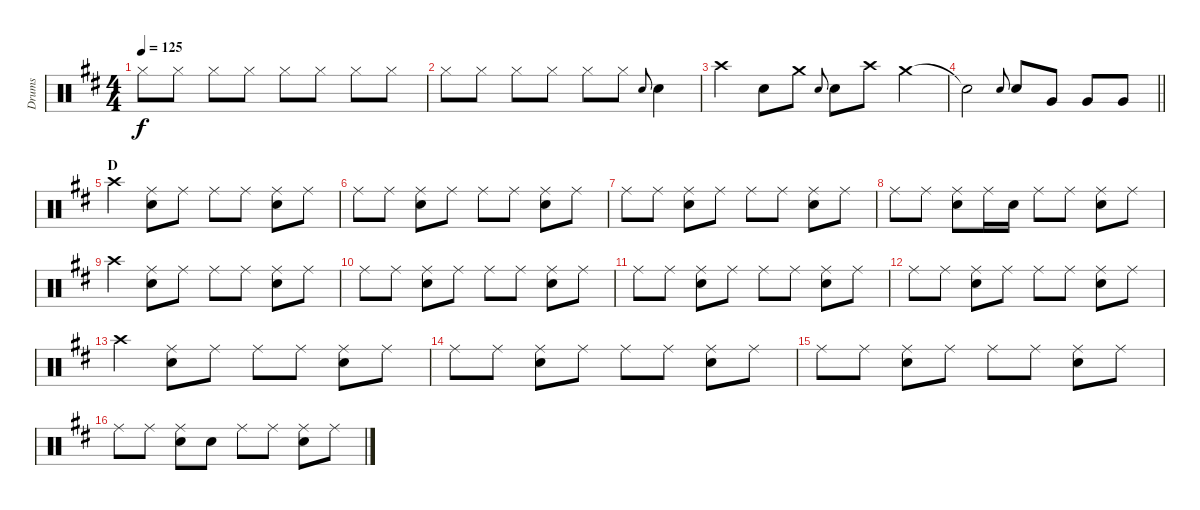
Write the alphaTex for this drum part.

\track ("Drums" "Drums") {instrument percussion}
\staff {score}
\articulation defaults
\ts (4 4)
\tempo 125
\clef neutral
\ks d "Hi-Hat (closed)".8{dy f} "Hi-Hat (closed)".8 "Hi-Hat (closed)".8 "Hi-Hat (closed)".8 "Hi-Hat (closed)".8 "Hi-Hat (closed)".8 "Hi-Hat (closed)".8 "Hi-Hat (closed)".8
|
"Hi-Hat (closed)".8 "Hi-Hat (closed)".8 "Hi-Hat (closed)".8 "Hi-Hat (closed)".8 "Hi-Hat (closed)".8 "Hi-Hat (closed)".8 "Snare (hit) 2".8{gr onbeat} "Snare (hit) 2".4 |
"Crash high (hit)".4 "Snare (hit) 2".8 "Crash medium (hit)".8 "Snare (hit) 2".8{gr onbeat} "Snare (hit) 2".8 "Crash high (hit)".8 "Crash medium (hit)".4 |
\barLineRight lightlight "Snare (hit)"{t}.2 "Snare (hit) 2".8{gr onbeat} "Snare (hit) 2".8 "Very Low Tom (hit)".8 "Very Low Tom (hit)".8 "Very Low Tom (hit)".8
|
\section ("" "D")
"Crash high (hit)".4 ("Ride (middle)" "Snare (hit) 2").8 "Ride (middle)".8 "Ride (middle)".8 "Ride (middle)".8 ("Ride (middle)" "Snare (hit) 2").8 "Ride (middle)".8 |
"Ride (middle)".8 "Ride (middle)".8 ("Ride (middle)" "Snare (hit) 2").8 "Ride (middle)".8 "Ride (middle)".8 "Ride (middle)".8 ("Ride (middle)" "Snare (hit) 2").8 "Ride (middle)".8 |
"Ride (middle)".8 "Ride (middle)".8 ("Ride (middle)" "Snare (hit) 2").8 "Ride (middle)".8 "Ride (middle)".8 "Ride (middle)".8 ("Ride (middle)" "Snare (hit) 2").8 "Ride (middle)".8 |
"Ride (middle)".8 "Ride (middle)".8 ("Ride (middle)" "Snare (hit) 2").8 "Ride (middle)".16 "Snare (hit) 2".16 "Ride (middle)".8 "Ride (middle)".8 ("Ride (middle)" "Snare (hit) 2").8 "Ride (middle)".8 |
"Crash high (hit)".4 ("Ride (middle)" "Snare (hit) 2").8 "Ride (middle)".8 "Ride (middle)".8 "Ride (middle)".8 ("Ride (middle)" "Snare (hit) 2").8 "Ride (middle)".8 |
"Ride (middle)".8 "Ride (middle)".8 ("Ride (middle)" "Snare (hit) 2").8 "Ride (middle)".8 "Ride (middle)".8 "Ride (middle)".8 ("Ride (middle)" "Snare (hit) 2").8 "Ride (middle)".8 |
"Ride (middle)".8 "Ride (middle)".8 ("Ride (middle)" "Snare (hit) 2").8 "Ride (middle)".8 "Ride (middle)".8 "Ride (middle)".8 ("Ride (middle)" "Snare (hit) 2").8 "Ride (middle)".8 |
"Ride (middle)".8 "Ride (middle)".8 ("Ride (middle)" "Snare (hit) 2").8 "Ride (middle)".8 "Ride (middle)".8 "Ride (middle)".8 ("Ride (middle)" "Snare (hit) 2").8 "Ride (middle)".8 |
"Crash high (hit)".4 ("Ride (middle)" "Snare (hit) 2").8 "Ride (middle)".8 "Ride (middle)".8 "Ride (middle)".8 ("Ride (middle)" "Snare (hit) 2").8 "Ride (middle)".8 |
"Ride (middle)".8 "Ride (middle)".8 ("Ride (middle)" "Snare (hit) 2").8 "Ride (middle)".8 "Ride (middle)".8 "Ride (middle)".8 ("Ride (middle)" "Snare (hit) 2").8 "Ride (middle)".8 |
"Ride (middle)".8 "Ride (middle)".8 ("Ride (middle)" "Snare (hit) 2").8 "Ride (middle)".8 "Ride (middle)".8 "Ride (middle)".8 ("Ride (middle)" "Snare (hit) 2").8 "Ride (middle)".8 |
"Ride (middle)".8 "Ride (middle)".8 ("Ride (middle)" "Snare (hit) 2").8 "Snare (hit) 2".8 "Ride (middle)".8 "Ride (middle)".8 ("Ride (middle)" "Snare (hit) 2").8 "Ride (middle)".8
